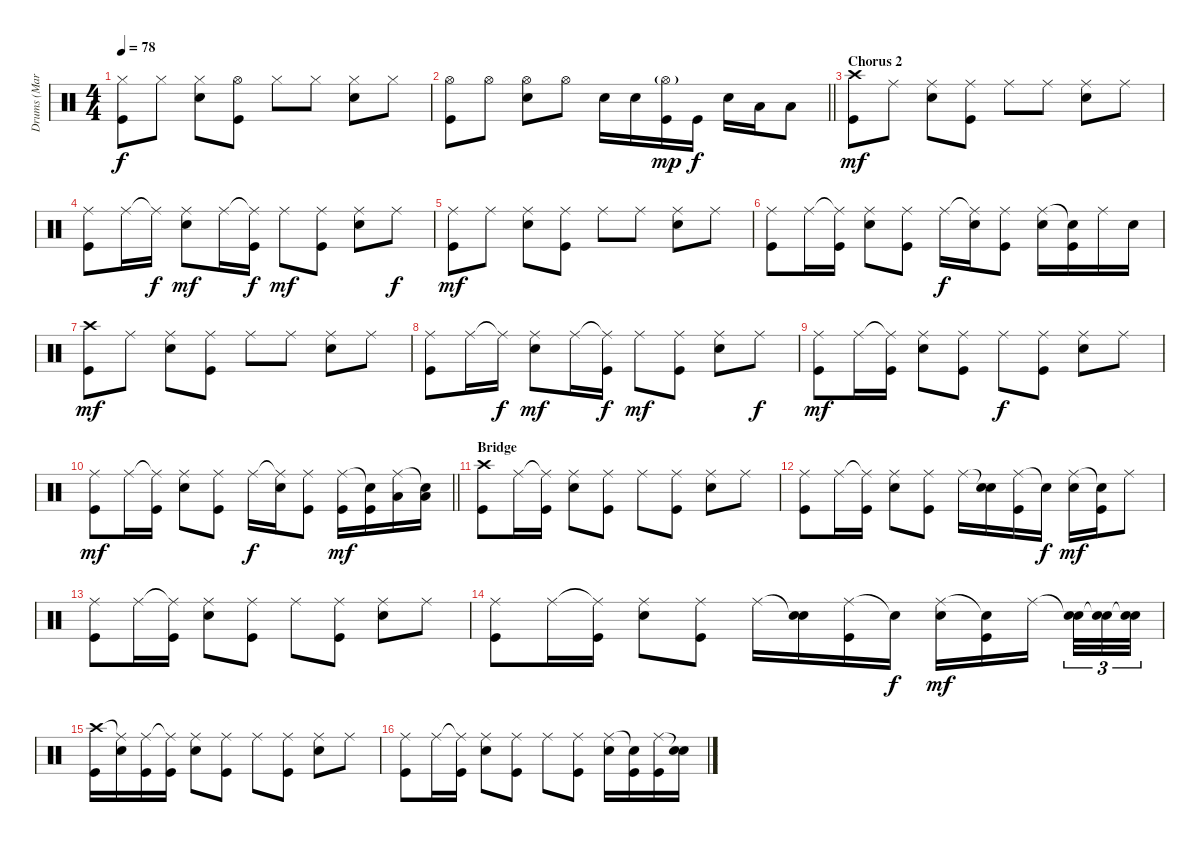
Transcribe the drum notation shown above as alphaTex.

\track ("Drums (Marcel Roemer)" "Drums (Mar") {instrument percussion}
\staff {score}
\articulation defaults
\ts (4 4)
\tempo 78
\clef neutral
\ks c
("Hi-Hat (closed)" "Kick (hit)").8{dy f} "Hi-Hat (closed)".8 ("Hi-Hat (closed)" "Snare (hit) 2").8 ("Hi-Hat (open)" "Kick (hit)").8 "Hi-Hat (closed)".8 "Hi-Hat (closed)".8 ("Hi-Hat (closed)" "Snare (hit) 2").8 "Hi-Hat (closed)".8 |
\barLineRight lightlight
("Hi-Hat (open)" "Kick (hit)").8 "Hi-Hat (open)".8 ("Hi-Hat (open)" "Snare (hit) 2").8 "Hi-Hat (open)".8 "Snare (hit) 2".16 "Snare (hit) 2".16 ("Hi-Hat (open)"{g} "Kick (hit)").16{dy mp} "Kick (hit)".16{dy f} "Snare (hit) 2".16 "Low Tom (hit)".16 "Low Floor Tom (hit)".8 |
\section ("" "Chorus 2")
("Crash high (hit)" "Kick (hit)").8{dy mf} "Ride (middle)".8 ("Ride (middle)" "Snare (hit) 2").8 ("Ride (middle)" "Kick (hit)").8 "Ride (middle)".8 "Ride (middle)".8 ("Ride (middle)" "Snare (hit) 2").8 "Ride (middle)".8 |
("Ride (middle)" "Kick (hit)").8 "Ride (middle)".16 "Ride (middle)"{t}.16{dy f} ("Ride (middle)" "Snare (hit) 2").8{dy mf} "Ride (middle)".16 ("Ride (middle)"{t} "Kick (hit)").16{dy f} "Ride (middle)".8{dy mf} ("Ride (middle)" "Kick (hit)").8 ("Ride (middle)" "Snare (hit) 2").8 "Ride (middle)".8{dy f} |
("Ride (middle)" "Kick (hit)").8{dy mf} "Ride (middle)".8 ("Ride (middle)" "Snare (hit) 2").8 ("Ride (middle)" "Kick (hit)").8 "Ride (middle)".8 "Ride (middle)".8 ("Ride (middle)" "Snare (hit) 2").8 "Ride (middle)".8 |
("Ride (middle)" "Kick (hit)").8 "Ride (middle)".16 ("Ride (middle)"{t} "Kick (hit)").16 ("Ride (middle)" "Snare (hit) 2").8 ("Ride (middle)" "Kick (hit)").8 "Ride (middle)".16{dy f} ("Ride (middle)"{t} "Snare (hit) 2").16 ("Ride (middle)" "Kick (hit)").8 ("Ride (middle)" "Snare (hit) 2").16 ("Snare (hit)"{t} "Kick (hit)").16 "Ride (middle)".16 "Snare (hit) 2".16 |
("Crash high (hit)" "Kick (hit)").8{dy mf} "Ride (middle)".8 ("Ride (middle)" "Snare (hit) 2").8 ("Ride (middle)" "Kick (hit)").8 "Ride (middle)".8 "Ride (middle)".8 ("Ride (middle)" "Snare (hit) 2").8 "Ride (middle)".8 |
("Ride (middle)" "Kick (hit)").8 "Ride (middle)".16 "Ride (middle)"{t}.16{dy f} ("Ride (middle)" "Snare (hit) 2").8{dy mf} "Ride (middle)".16 ("Ride (middle)"{t} "Kick (hit)").16{dy f} "Ride (middle)".8{dy mf} ("Ride (middle)" "Kick (hit)").8 ("Ride (middle)" "Snare (hit) 2").8 "Ride (middle)".8{dy f} |
("Ride (middle)" "Kick (hit)").8{dy mf} "Ride (middle)".16 ("Ride (middle)"{t} "Kick (hit)").16 ("Ride (middle)" "Snare (hit) 2").8 ("Ride (middle)" "Kick (hit)").8 "Ride (middle)".8{dy f} ("Ride (middle)" "Kick (hit)").8 ("Ride (middle)" "Snare (hit) 2").8 "Ride (middle)".8 |
\barLineRight lightlight
("Ride (middle)" "Kick (hit)").8{dy mf} "Ride (middle)".16 ("Ride (middle)"{t} "Kick (hit)").16 ("Ride (middle)" "Snare (hit) 2").8 ("Ride (middle)" "Kick (hit)").8 "Ride (middle)".16{dy f} ("Ride (middle)"{t} "Snare (hit) 2").16 ("Ride (middle)" "Kick (hit)").8 ("Ride (middle)" "Kick (hit)").16{dy mf} ("Snare (hit)"{t} "Kick (hit)").16 ("Ride (middle)" "Low Tom (hit)").16 ("Snare (hit)"{t} "Low Floor Tom (hit)").16 |
\section ("" "Bridge")
("Crash high (hit)" "Kick (hit)").8 "Ride (middle)".16 ("Ride (middle)"{t} "Kick (hit)").16 ("Ride (middle)" "Snare (hit) 2").8 ("Ride (middle)" "Kick (hit)").8 "Ride (middle)".8 ("Ride (middle)" "Kick (hit)").8 ("Ride (middle)" "Snare (hit) 2").8 "Ride (middle)".8 |
("Ride (middle)" "Kick (hit)").8 "Ride (middle)".16 ("Ride (middle)"{t} "Kick (hit)").16 ("Ride (middle)" "Snare (hit) 2").8 ("Ride (middle)" "Kick (hit)").8 "Ride (middle)".16 ("Snare (hit)"{t} "Snare (hit) 2").16 ("Ride (middle)" "Kick (hit)").16 "Snare (hit)"{t}.16{dy f} ("Ride (middle)" "Snare (hit) 2").16{dy mf} ("Snare (hit)"{t} "Kick (hit)").16 "Ride (middle)".8 |
("Ride (middle)" "Kick (hit)").8 "Ride (middle)".16 ("Ride (middle)"{t} "Kick (hit)").16 ("Ride (middle)" "Snare (hit) 2").8 ("Ride (middle)" "Kick (hit)").8 "Ride (middle)".8 ("Ride (middle)" "Kick (hit)").8 ("Ride (middle)" "Snare (hit) 2").8 "Ride (middle)".8 |
("Ride (middle)" "Kick (hit)").8 "Ride (middle)".16 ("Ride (middle)"{t} "Kick (hit)").16 ("Ride (middle)" "Snare (hit) 2").8 ("Ride (middle)" "Kick (hit)").8 "Ride (middle)".16 ("Snare (hit)"{t} "Snare (hit) 2").16 ("Ride (middle)" "Kick (hit)").16 "Snare (hit)"{t}.16{dy f} ("Ride (middle)" "Snare (hit) 2").16{dy mf} ("Snare (hit)"{t} "Kick (hit)").16 "Ride (middle)".16{beam splitsecondary} ("Snare (hit)"{t} "Snare (hit) 2").32{tu (3 2)} ("Snare (hit)"{t} "Snare (hit) 2").32{tu (3 2)} ("Snare (hit)"{t} "Snare (hit) 2").32{tu (3 2)} |
("Crash high (hit)" "Kick (hit)").16 ("Ride (middle)"{t} "Snare (hit) 2").16 ("Ride (middle)" "Kick (hit)").16 ("Ride (middle)"{t} "Kick (hit)").16 ("Ride (middle)" "Snare (hit) 2").8 ("Ride (middle)" "Kick (hit)").8 "Ride (middle)".8 ("Ride (middle)" "Kick (hit)").8 ("Ride (middle)" "Snare (hit) 2").8 "Ride (middle)".8 |
("Ride (middle)" "Kick (hit)").8 "Ride (middle)".16 ("Ride (middle)"{t} "Kick (hit)").16 ("Ride (middle)" "Snare (hit) 2").8 ("Ride (middle)" "Kick (hit)").8 "Ride (middle)".8 ("Ride (middle)" "Kick (hit)").8 ("Ride (middle)" "Snare (hit) 2").16 ("Snare (hit)"{t} "Kick (hit)").16 ("Ride (middle)" "Kick (hit)").16 ("Snare (hit)"{t} "Snare (hit) 2").16
